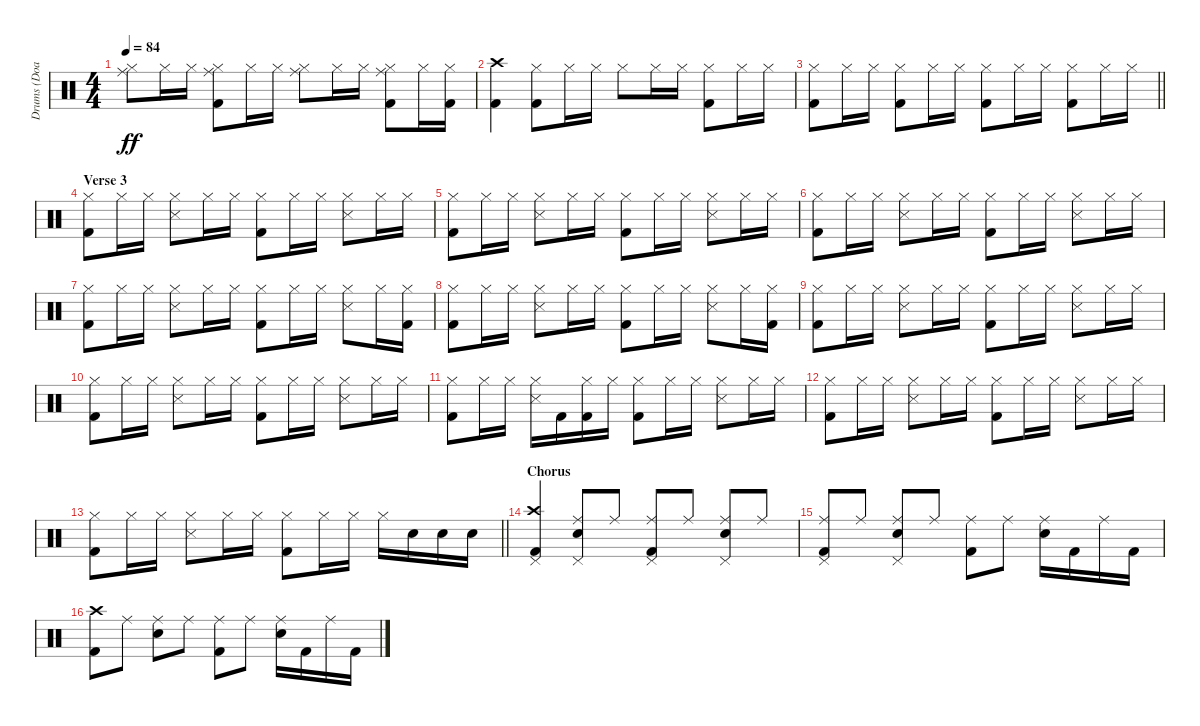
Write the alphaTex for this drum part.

\track ("Drums (Doane Perry)" "Drums (Doa") {instrument percussion}
\staff {score}
\articulation defaults
\ts (4 4)
\tempo 84
\clef neutral
\ks c
("Hi-Hat (closed)" "Ride (middle)").8{dy ff} "Hi-Hat (closed)".16 "Hi-Hat (closed)".16 ("Kick (hit) 2" "Hi-Hat (closed)" "Ride (middle)").8 "Hi-Hat (closed)".16 "Hi-Hat (closed)".16 ("Hi-Hat (closed)" "Ride (middle)").8 "Hi-Hat (closed)".16 "Hi-Hat (closed)".16 ("Kick (hit) 2" "Hi-Hat (closed)" "Ride (middle)").8 "Hi-Hat (closed)".16 ("Kick (hit) 2" "Hi-Hat (closed)").16 |
("Kick (hit) 2" "Crash high (hit)").4 ("Kick (hit) 2" "Hi-Hat (closed)").8 "Hi-Hat (closed)".16 "Hi-Hat (closed)".16 "Hi-Hat (closed)".8 "Hi-Hat (closed)".16 "Hi-Hat (closed)".16 ("Kick (hit) 2" "Hi-Hat (closed)").8 "Hi-Hat (closed)".16 "Hi-Hat (closed)".16 |
\barLineRight lightlight
("Kick (hit) 2" "Hi-Hat (closed)").8 "Hi-Hat (closed)".16 "Hi-Hat (closed)".16 ("Kick (hit) 2" "Hi-Hat (closed)").8 "Hi-Hat (closed)".16 "Hi-Hat (closed)".16 ("Kick (hit) 2" "Hi-Hat (closed)").8 "Hi-Hat (closed)".16 "Hi-Hat (closed)".16 ("Kick (hit) 2" "Hi-Hat (closed)").8 "Hi-Hat (closed)".16 "Hi-Hat (closed)".16 |
\section ("" "Verse 3")
("Kick (hit) 2" "Hi-Hat (closed)").8 "Hi-Hat (closed)".16 "Hi-Hat (closed)".16 ("Snare (side stick) 3" "Hi-Hat (closed)").8 "Hi-Hat (closed)".16 "Hi-Hat (closed)".16 ("Kick (hit) 2" "Hi-Hat (closed)").8 "Hi-Hat (closed)".16 "Hi-Hat (closed)".16 ("Snare (side stick) 3" "Hi-Hat (closed)").8 "Hi-Hat (closed)".16 "Hi-Hat (closed)".16 |
("Kick (hit) 2" "Hi-Hat (closed)").8 "Hi-Hat (closed)".16 "Hi-Hat (closed)".16 ("Snare (side stick) 3" "Hi-Hat (closed)").8 "Hi-Hat (closed)".16 "Hi-Hat (closed)".16 ("Kick (hit) 2" "Hi-Hat (closed)").8 "Hi-Hat (closed)".16 "Hi-Hat (closed)".16 ("Snare (side stick) 3" "Hi-Hat (closed)").8 "Hi-Hat (closed)".16 "Hi-Hat (closed)".16 |
("Kick (hit) 2" "Hi-Hat (closed)").8 "Hi-Hat (closed)".16 "Hi-Hat (closed)".16 ("Snare (side stick) 3" "Hi-Hat (closed)").8 "Hi-Hat (closed)".16 "Hi-Hat (closed)".16 ("Kick (hit) 2" "Hi-Hat (closed)").8 "Hi-Hat (closed)".16 "Hi-Hat (closed)".16 ("Snare (side stick) 3" "Hi-Hat (closed)").8 "Hi-Hat (closed)".16 "Hi-Hat (closed)".16 |
("Kick (hit) 2" "Hi-Hat (closed)").8 "Hi-Hat (closed)".16 "Hi-Hat (closed)".16 ("Snare (side stick) 3" "Hi-Hat (closed)").8 "Hi-Hat (closed)".16 "Hi-Hat (closed)".16 ("Kick (hit) 2" "Hi-Hat (closed)").8 "Hi-Hat (closed)".16 "Hi-Hat (closed)".16 ("Snare (side stick) 3" "Hi-Hat (closed)").8 "Hi-Hat (closed)".16 ("Kick (hit) 2" "Hi-Hat (closed)").16 |
("Kick (hit) 2" "Hi-Hat (closed)").8 "Hi-Hat (closed)".16 "Hi-Hat (closed)".16 ("Snare (side stick) 3" "Hi-Hat (closed)").8 "Hi-Hat (closed)".16 "Hi-Hat (closed)".16 ("Kick (hit) 2" "Hi-Hat (closed)").8 "Hi-Hat (closed)".16 "Hi-Hat (closed)".16 ("Snare (side stick) 3" "Hi-Hat (closed)").8 "Hi-Hat (closed)".16 ("Kick (hit) 2" "Hi-Hat (closed)").16 |
("Kick (hit) 2" "Hi-Hat (closed)").8 "Hi-Hat (closed)".16 "Hi-Hat (closed)".16 ("Snare (side stick) 3" "Hi-Hat (closed)").8 "Hi-Hat (closed)".16 "Hi-Hat (closed)".16 ("Kick (hit) 2" "Hi-Hat (closed)").8 "Hi-Hat (closed)".16 "Hi-Hat (closed)".16 ("Snare (side stick) 3" "Hi-Hat (closed)").8 "Hi-Hat (closed)".16 "Hi-Hat (closed)".16 |
("Kick (hit) 2" "Hi-Hat (closed)").8 "Hi-Hat (closed)".16 "Hi-Hat (closed)".16 ("Snare (side stick) 3" "Hi-Hat (closed)").8 "Hi-Hat (closed)".16 "Hi-Hat (closed)".16 ("Kick (hit) 2" "Hi-Hat (closed)").8 "Hi-Hat (closed)".16 "Hi-Hat (closed)".16 ("Snare (side stick) 3" "Hi-Hat (closed)").8 "Hi-Hat (closed)".16 "Hi-Hat (closed)".16 |
("Kick (hit) 2" "Hi-Hat (closed)").8 "Hi-Hat (closed)".16 "Hi-Hat (closed)".16 ("Snare (side stick) 3" "Hi-Hat (closed)").16 "Kick (hit) 2".16 ("Kick (hit) 2" "Hi-Hat (closed)").16 "Hi-Hat (closed)".16 ("Kick (hit) 2" "Hi-Hat (closed)").8 "Hi-Hat (closed)".16 "Hi-Hat (closed)".16 ("Snare (side stick) 3" "Hi-Hat (closed)").8 "Hi-Hat (closed)".16 "Hi-Hat (closed)".16 |
("Kick (hit) 2" "Hi-Hat (closed)").8 "Hi-Hat (closed)".16 "Hi-Hat (closed)".16 ("Snare (side stick) 3" "Hi-Hat (closed)").8 "Hi-Hat (closed)".16 "Hi-Hat (closed)".16 ("Kick (hit) 2" "Hi-Hat (closed)").8 "Hi-Hat (closed)".16 "Hi-Hat (closed)".16 ("Snare (side stick) 3" "Hi-Hat (closed)").8 "Hi-Hat (closed)".16 "Hi-Hat (closed)".16 |
\barLineRight lightlight
("Kick (hit) 2" "Hi-Hat (closed)").8 "Hi-Hat (closed)".16 "Hi-Hat (closed)".16 ("Snare (side stick) 3" "Hi-Hat (closed)").8 "Hi-Hat (closed)".16 "Hi-Hat (closed)".16 ("Kick (hit) 2" "Hi-Hat (closed)").8 "Hi-Hat (closed)".16 "Hi-Hat (closed)".16 "Hi-Hat (closed)".16 "Snare (hit) 2".16 "Snare (hit) 2".16 "Snare (hit) 2".16 |
\section ("" "Chorus")
("Kick (hit) 2" "Pedal Hi-Hat (hit)" "Crash high (hit)").4 ("Snare (hit) 2" "Pedal Hi-Hat (hit)" "Ride (middle)").8 "Ride (middle)".8 ("Kick (hit) 2" "Pedal Hi-Hat (hit)" "Ride (middle)").8 "Ride (middle)".8 ("Snare (hit) 2" "Pedal Hi-Hat (hit)" "Ride (middle)").8 "Ride (middle)".8 |
("Kick (hit) 2" "Pedal Hi-Hat (hit)" "Ride (middle)").8 "Ride (middle)".8 ("Snare (hit) 2" "Pedal Hi-Hat (hit)" "Ride (middle)").8 "Ride (middle)".8 ("Kick (hit) 2" "Ride (middle)").8 "Ride (middle)".8 ("Snare (hit) 2" "Ride (middle)").16 "Kick (hit) 2".16 "Ride (middle)".16 "Kick (hit) 2".16 |
("Kick (hit) 2" "Crash high (hit)").8 "Ride (middle)".8 ("Snare (hit) 2" "Ride (middle)").8 "Ride (middle)".8 ("Kick (hit) 2" "Ride (middle)").8 "Ride (middle)".8 ("Snare (hit) 2" "Ride (middle)").16 "Kick (hit) 2".16 "Ride (middle)".16 "Kick (hit) 2".16
